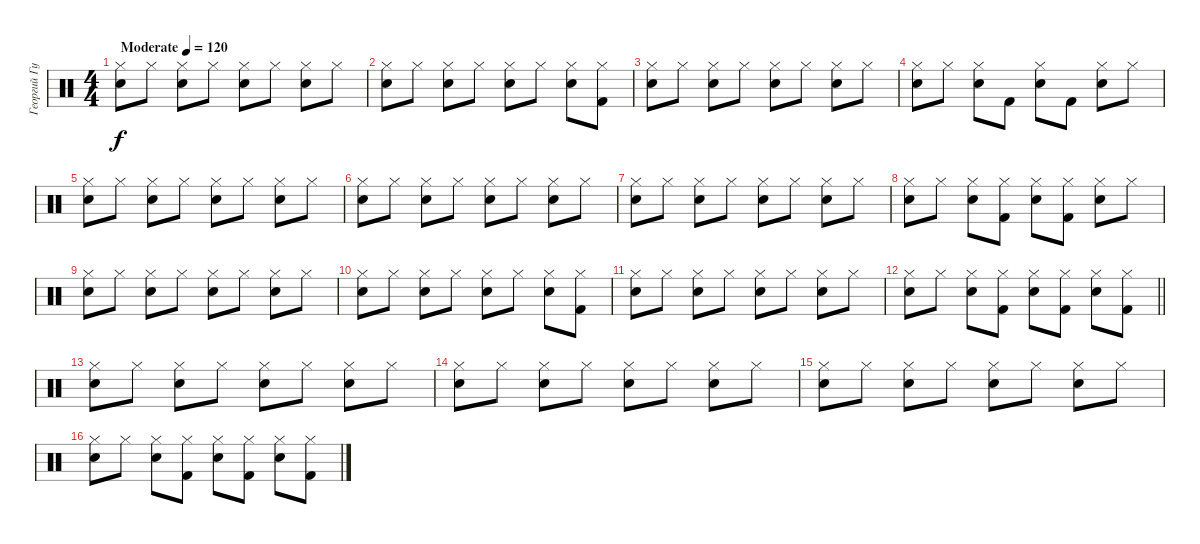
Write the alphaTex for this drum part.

\track ("Георгий Гурьянов" "Георгий Гу") {instrument percussion}
\staff {score}
\articulation defaults
\ts (4 4)
\tempo (120 "Moderate")
\clef neutral
\ks c
("Hi-Hat (closed)" "Snare (hit) 2").8{dy f} "Hi-Hat (closed)".8 ("Hi-Hat (closed)" "Snare (hit) 2").8 "Hi-Hat (closed)".8 ("Hi-Hat (closed)" "Snare (hit) 2").8 "Hi-Hat (closed)".8 ("Hi-Hat (closed)" "Snare (hit) 2").8 "Hi-Hat (closed)".8 |
("Hi-Hat (closed)" "Snare (hit) 2").8 "Hi-Hat (closed)".8 ("Hi-Hat (closed)" "Snare (hit) 2").8 "Hi-Hat (closed)".8 ("Hi-Hat (closed)" "Snare (hit) 2").8 "Hi-Hat (closed)".8 ("Hi-Hat (closed)" "Snare (hit) 2").8 ("Hi-Hat (closed)" "Kick (hit) 2").8 |
("Hi-Hat (closed)" "Snare (hit) 2").8 "Hi-Hat (closed)".8 ("Hi-Hat (closed)" "Snare (hit) 2").8 "Hi-Hat (closed)".8 ("Hi-Hat (closed)" "Snare (hit) 2").8 "Hi-Hat (closed)".8 ("Hi-Hat (closed)" "Snare (hit) 2").8 "Hi-Hat (closed)".8 |
("Hi-Hat (closed)" "Snare (hit) 2").8 "Hi-Hat (closed)".8 ("Hi-Hat (closed)" "Snare (hit) 2").8 "Kick (hit) 2".8 ("Hi-Hat (closed)" "Snare (hit) 2").8 "Kick (hit) 2".8 ("Hi-Hat (closed)" "Snare (hit) 2").8 "Hi-Hat (closed)".8 |
("Hi-Hat (closed)" "Snare (hit) 2").8 "Hi-Hat (closed)".8 ("Hi-Hat (closed)" "Snare (hit) 2").8 "Hi-Hat (closed)".8 ("Hi-Hat (closed)" "Snare (hit) 2").8 "Hi-Hat (closed)".8 ("Hi-Hat (closed)" "Snare (hit) 2").8 "Hi-Hat (closed)".8 |
("Hi-Hat (closed)" "Snare (hit) 2").8 "Hi-Hat (closed)".8 ("Hi-Hat (closed)" "Snare (hit) 2").8 "Hi-Hat (closed)".8 ("Hi-Hat (closed)" "Snare (hit) 2").8 "Hi-Hat (closed)".8 ("Hi-Hat (closed)" "Snare (hit) 2").8 "Hi-Hat (closed)".8 |
("Hi-Hat (closed)" "Snare (hit) 2").8 "Hi-Hat (closed)".8 ("Hi-Hat (closed)" "Snare (hit) 2").8 "Hi-Hat (closed)".8 ("Hi-Hat (closed)" "Snare (hit) 2").8 "Hi-Hat (closed)".8 ("Hi-Hat (closed)" "Snare (hit) 2").8 "Hi-Hat (closed)".8 |
("Hi-Hat (closed)" "Snare (hit) 2").8 "Hi-Hat (closed)".8 ("Hi-Hat (closed)" "Snare (hit) 2").8 ("Hi-Hat (closed)" "Kick (hit) 2").8 ("Hi-Hat (closed)" "Snare (hit) 2").8 ("Hi-Hat (closed)" "Kick (hit) 2").8 ("Hi-Hat (closed)" "Snare (hit) 2").8 "Hi-Hat (closed)".8 |
("Hi-Hat (closed)" "Snare (hit) 2").8 "Hi-Hat (closed)".8 ("Hi-Hat (closed)" "Snare (hit) 2").8 "Hi-Hat (closed)".8 ("Hi-Hat (closed)" "Snare (hit) 2").8 "Hi-Hat (closed)".8 ("Hi-Hat (closed)" "Snare (hit) 2").8 "Hi-Hat (closed)".8 |
("Hi-Hat (closed)" "Snare (hit) 2").8 "Hi-Hat (closed)".8 ("Hi-Hat (closed)" "Snare (hit) 2").8 "Hi-Hat (closed)".8 ("Hi-Hat (closed)" "Snare (hit) 2").8 "Hi-Hat (closed)".8 ("Hi-Hat (closed)" "Snare (hit) 2").8 ("Hi-Hat (closed)" "Kick (hit) 2").8 |
("Hi-Hat (closed)" "Snare (hit) 2").8 "Hi-Hat (closed)".8 ("Hi-Hat (closed)" "Snare (hit) 2").8 "Hi-Hat (closed)".8 ("Hi-Hat (closed)" "Snare (hit) 2").8 "Hi-Hat (closed)".8 ("Hi-Hat (closed)" "Snare (hit) 2").8 "Hi-Hat (closed)".8 |
\barLineRight lightlight
("Hi-Hat (closed)" "Snare (hit) 2").8 "Hi-Hat (closed)".8 ("Hi-Hat (closed)" "Snare (hit) 2").8 ("Hi-Hat (closed)" "Kick (hit) 2").8 ("Hi-Hat (closed)" "Snare (hit) 2").8 ("Hi-Hat (closed)" "Kick (hit) 2").8 ("Hi-Hat (closed)" "Snare (hit) 2").8 ("Hi-Hat (closed)" "Kick (hit) 2").8 |
("Hi-Hat (closed)" "Snare (hit) 2").8 "Hi-Hat (closed)".8 ("Hi-Hat (closed)" "Snare (hit) 2").8 "Hi-Hat (closed)".8 ("Hi-Hat (closed)" "Snare (hit) 2").8 "Hi-Hat (closed)".8 ("Hi-Hat (closed)" "Snare (hit) 2").8 "Hi-Hat (closed)".8 |
("Hi-Hat (closed)" "Snare (hit) 2").8 "Hi-Hat (closed)".8 ("Hi-Hat (closed)" "Snare (hit) 2").8 "Hi-Hat (closed)".8 ("Hi-Hat (closed)" "Snare (hit) 2").8 "Hi-Hat (closed)".8 ("Hi-Hat (closed)" "Snare (hit) 2").8 "Hi-Hat (closed)".8 |
("Hi-Hat (closed)" "Snare (hit) 2").8 "Hi-Hat (closed)".8 ("Hi-Hat (closed)" "Snare (hit) 2").8 "Hi-Hat (closed)".8 ("Hi-Hat (closed)" "Snare (hit) 2").8 "Hi-Hat (closed)".8 ("Hi-Hat (closed)" "Snare (hit) 2").8 "Hi-Hat (closed)".8 |
("Hi-Hat (closed)" "Snare (hit) 2").8 "Hi-Hat (closed)".8 ("Hi-Hat (closed)" "Snare (hit) 2").8 ("Hi-Hat (closed)" "Kick (hit) 2").8 ("Hi-Hat (closed)" "Snare (hit) 2").8 ("Hi-Hat (closed)" "Kick (hit) 2").8 ("Hi-Hat (closed)" "Snare (hit) 2").8 ("Hi-Hat (closed)" "Kick (hit) 2").8
